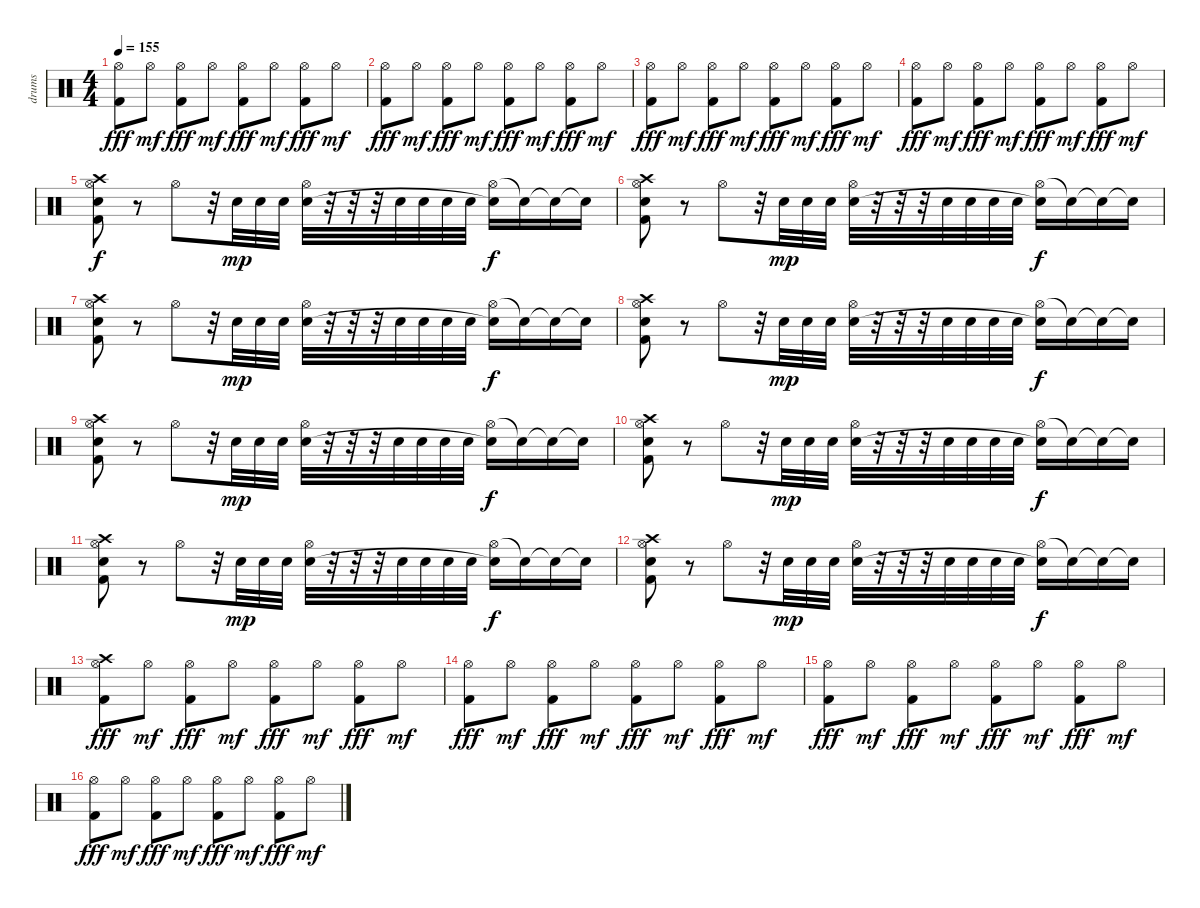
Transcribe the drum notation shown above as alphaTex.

\track ("drums" "drums") {instrument percussion}
\staff {score}
\articulation defaults
\ts (4 4)
\tempo 155
\clef neutral
\ks c
("Hi-Hat (open)" "Kick (hit) 2").8{dy fff} "Hi-Hat (open)".8{dy mf} ("Hi-Hat (open)" "Kick (hit) 2").8{dy fff} "Hi-Hat (open)".8{dy mf} ("Hi-Hat (open)" "Kick (hit) 2").8{dy fff} "Hi-Hat (open)".8{dy mf} ("Hi-Hat (open)" "Kick (hit) 2").8{dy fff} "Hi-Hat (open)".8{dy mf} |
("Hi-Hat (open)" "Kick (hit) 2").8{dy fff} "Hi-Hat (open)".8{dy mf} ("Hi-Hat (open)" "Kick (hit) 2").8{dy fff} "Hi-Hat (open)".8{dy mf} ("Hi-Hat (open)" "Kick (hit) 2").8{dy fff} "Hi-Hat (open)".8{dy mf} ("Hi-Hat (open)" "Kick (hit) 2").8{dy fff} "Hi-Hat (open)".8{dy mf} |
("Hi-Hat (open)" "Kick (hit) 2").8{dy fff} "Hi-Hat (open)".8{dy mf} ("Hi-Hat (open)" "Kick (hit) 2").8{dy fff} "Hi-Hat (open)".8{dy mf} ("Hi-Hat (open)" "Kick (hit) 2").8{dy fff} "Hi-Hat (open)".8{dy mf} ("Hi-Hat (open)" "Kick (hit) 2").8{dy fff} "Hi-Hat (open)".8{dy mf} |
("Hi-Hat (open)" "Kick (hit) 2").8{dy fff} "Hi-Hat (open)".8{dy mf} ("Hi-Hat (open)" "Kick (hit) 2").8{dy fff} "Hi-Hat (open)".8{dy mf} ("Hi-Hat (open)" "Kick (hit) 2").8{dy fff} "Hi-Hat (open)".8{dy mf} ("Hi-Hat (open)" "Kick (hit) 2").8{dy fff} "Hi-Hat (open)".8{dy mf} |
("Hi-Hat (open)" "Crash high (hit)" "Snare (hit) 2" "Kick (hit) 2").8{dy f} r.8 "Hi-Hat (open)".8 r.32 "Snare (hit) 2".32{dy mp} "Snare (hit) 2".32 "Snare (hit) 2".32 ("Hi-Hat (open)" "Snare (hit) 2").32 r.32 r.32 r.32 "Snare (hit) 2".32 "Snare (hit) 2".32 "Snare (hit) 2".32 "Snare (hit) 2".32 ("Hi-Hat (open)" "Snare (hit)"{t}).16{dy f} "Snare (hit)"{t}.16 "Snare (hit)"{t}.16 "Snare (hit)"{t}.16 |
("Hi-Hat (open)" "Crash high (hit)" "Snare (hit) 2" "Kick (hit) 2").8 r.8 "Hi-Hat (open)".8 r.32 "Snare (hit) 2".32{dy mp} "Snare (hit) 2".32 "Snare (hit) 2".32 ("Hi-Hat (open)" "Snare (hit) 2").32 r.32 r.32 r.32 "Snare (hit) 2".32 "Snare (hit) 2".32 "Snare (hit) 2".32 "Snare (hit) 2".32 ("Hi-Hat (open)" "Snare (hit)"{t}).16{dy f} "Snare (hit)"{t}.16 "Snare (hit)"{t}.16 "Snare (hit)"{t}.16 |
("Hi-Hat (open)" "Crash high (hit)" "Snare (hit) 2" "Kick (hit) 2").8 r.8 "Hi-Hat (open)".8 r.32 "Snare (hit) 2".32{dy mp} "Snare (hit) 2".32 "Snare (hit) 2".32 ("Hi-Hat (open)" "Snare (hit) 2").32 r.32 r.32 r.32 "Snare (hit) 2".32 "Snare (hit) 2".32 "Snare (hit) 2".32 "Snare (hit) 2".32 ("Hi-Hat (open)" "Snare (hit)"{t}).16{dy f} "Snare (hit)"{t}.16 "Snare (hit)"{t}.16 "Snare (hit)"{t}.16 |
("Hi-Hat (open)" "Crash high (hit)" "Snare (hit) 2" "Kick (hit) 2").8 r.8 "Hi-Hat (open)".8 r.32 "Snare (hit) 2".32{dy mp} "Snare (hit) 2".32 "Snare (hit) 2".32 ("Hi-Hat (open)" "Snare (hit) 2").32 r.32 r.32 r.32 "Snare (hit) 2".32 "Snare (hit) 2".32 "Snare (hit) 2".32 "Snare (hit) 2".32 ("Hi-Hat (open)" "Snare (hit)"{t}).16{dy f} "Snare (hit)"{t}.16 "Snare (hit)"{t}.16 "Snare (hit)"{t}.16 |
("Hi-Hat (open)" "Crash high (hit)" "Snare (hit) 2" "Kick (hit) 2").8 r.8 "Hi-Hat (open)".8 r.32 "Snare (hit) 2".32{dy mp} "Snare (hit) 2".32 "Snare (hit) 2".32 ("Hi-Hat (open)" "Snare (hit) 2").32 r.32 r.32 r.32 "Snare (hit) 2".32 "Snare (hit) 2".32 "Snare (hit) 2".32 "Snare (hit) 2".32 ("Hi-Hat (open)" "Snare (hit)"{t}).16{dy f} "Snare (hit)"{t}.16 "Snare (hit)"{t}.16 "Snare (hit)"{t}.16 |
("Hi-Hat (open)" "Crash high (hit)" "Snare (hit) 2" "Kick (hit) 2").8 r.8 "Hi-Hat (open)".8 r.32 "Snare (hit) 2".32{dy mp} "Snare (hit) 2".32 "Snare (hit) 2".32 ("Hi-Hat (open)" "Snare (hit) 2").32 r.32 r.32 r.32 "Snare (hit) 2".32 "Snare (hit) 2".32 "Snare (hit) 2".32 "Snare (hit) 2".32 ("Hi-Hat (open)" "Snare (hit)"{t}).16{dy f} "Snare (hit)"{t}.16 "Snare (hit)"{t}.16 "Snare (hit)"{t}.16 |
("Hi-Hat (open)" "Crash high (hit)" "Snare (hit) 2" "Kick (hit) 2").8 r.8 "Hi-Hat (open)".8 r.32 "Snare (hit) 2".32{dy mp} "Snare (hit) 2".32 "Snare (hit) 2".32 ("Hi-Hat (open)" "Snare (hit) 2").32 r.32 r.32 r.32 "Snare (hit) 2".32 "Snare (hit) 2".32 "Snare (hit) 2".32 "Snare (hit) 2".32 ("Hi-Hat (open)" "Snare (hit)"{t}).16{dy f} "Snare (hit)"{t}.16 "Snare (hit)"{t}.16 "Snare (hit)"{t}.16 |
("Hi-Hat (open)" "Crash high (hit)" "Snare (hit) 2" "Kick (hit) 2").8 r.8 "Hi-Hat (open)".8 r.32 "Snare (hit) 2".32{dy mp} "Snare (hit) 2".32 "Snare (hit) 2".32 ("Hi-Hat (open)" "Snare (hit) 2").32 r.32 r.32 r.32 "Snare (hit) 2".32 "Snare (hit) 2".32 "Snare (hit) 2".32 "Snare (hit) 2".32 ("Hi-Hat (open)" "Snare (hit)"{t}).16{dy f} "Snare (hit)"{t}.16 "Snare (hit)"{t}.16 "Snare (hit)"{t}.16 |
("Crash high (hit)" "Hi-Hat (open)" "Kick (hit) 2").8{dy fff} "Hi-Hat (open)".8{dy mf} ("Hi-Hat (open)" "Kick (hit) 2").8{dy fff} "Hi-Hat (open)".8{dy mf} ("Hi-Hat (open)" "Kick (hit) 2").8{dy fff} "Hi-Hat (open)".8{dy mf} ("Hi-Hat (open)" "Kick (hit) 2").8{dy fff} "Hi-Hat (open)".8{dy mf} |
("Hi-Hat (open)" "Kick (hit) 2").8{dy fff} "Hi-Hat (open)".8{dy mf} ("Hi-Hat (open)" "Kick (hit) 2").8{dy fff} "Hi-Hat (open)".8{dy mf} ("Hi-Hat (open)" "Kick (hit) 2").8{dy fff} "Hi-Hat (open)".8{dy mf} ("Hi-Hat (open)" "Kick (hit) 2").8{dy fff} "Hi-Hat (open)".8{dy mf} |
("Hi-Hat (open)" "Kick (hit) 2").8{dy fff} "Hi-Hat (open)".8{dy mf} ("Hi-Hat (open)" "Kick (hit) 2").8{dy fff} "Hi-Hat (open)".8{dy mf} ("Hi-Hat (open)" "Kick (hit) 2").8{dy fff} "Hi-Hat (open)".8{dy mf} ("Hi-Hat (open)" "Kick (hit) 2").8{dy fff} "Hi-Hat (open)".8{dy mf} |
("Hi-Hat (open)" "Kick (hit) 2").8{dy fff} "Hi-Hat (open)".8{dy mf} ("Hi-Hat (open)" "Kick (hit) 2").8{dy fff} "Hi-Hat (open)".8{dy mf} ("Hi-Hat (open)" "Kick (hit) 2").8{dy fff} "Hi-Hat (open)".8{dy mf} ("Hi-Hat (open)" "Kick (hit) 2").8{dy fff} "Hi-Hat (open)".8{dy mf}
